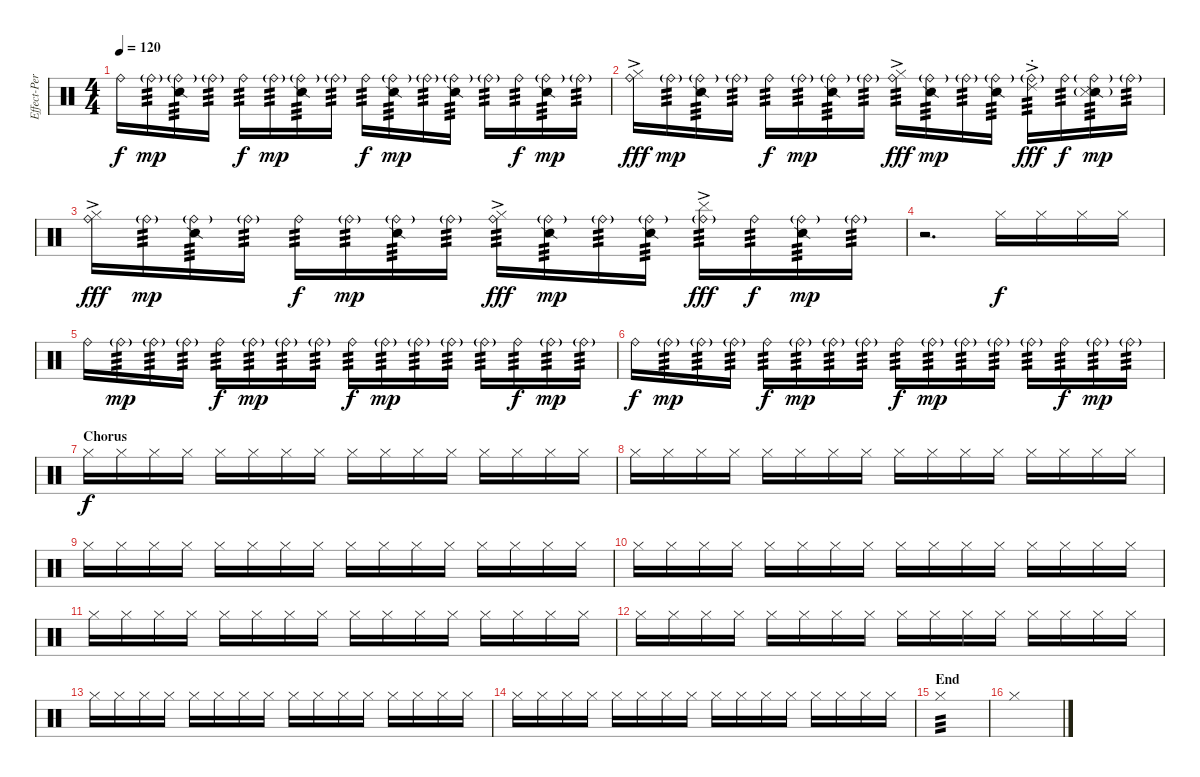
\track ("Effect-Percs" "Effect-Per") {instrument percussion}
\staff {score}
\articulation defaults
\ts (4 4)
\tempo 120
\clef neutral
\ks c "Ride (bell)".16{dy f} "Ride (bell)"{g}.16{tp 3 dy mp}
("Ride (bell)"{g} "Snare (side stick) 2").16{tp 3} "Ride (bell)"{g}.16{tp 3} "Ride (bell)".16{tp 3 dy f} "Ride (bell)"{g}.16{tp 3 dy mp} ("Ride (bell)"{g} "Snare (side stick) 2").16{tp 3} "Ride (bell)"{g}.16{tp 3} "Ride (bell)".16{tp 3 dy f} ("Ride (bell)"{g} "Snare (side stick) 2").16{tp 3 dy mp} "Ride (bell)"{g}.16{tp 3} ("Ride (bell)"{g} "Snare (side stick) 2").16{tp 3} "Ride (bell)"{g}.16{tp 3} "Ride (bell)".16{tp 3 dy f} ("Ride (bell)"{g} "Snare (side stick) 2").16{tp 3 dy mp} "Ride (bell)"{g}.16{tp 3} |
("Ride (bell)" "Hi-Hat (closed)"{ac}).16{dy fff} "Ride (bell)"{g}.16{tp 3 dy mp} ("Ride (bell)"{g} "Snare (side stick) 2").16{tp 3} "Ride (bell)"{g}.16{tp 3} "Ride (bell)".16{tp 3 dy f} "Ride (bell)"{g}.16{tp 3 dy mp} ("Ride (bell)"{g} "Snare (side stick) 2").16{tp 3} "Ride (bell)"{g}.16{tp 3} ("Ride (bell)" "Hi-Hat (closed)"{ac}).16{tp 3 dy fff} ("Ride (bell)"{g} "Snare (side stick) 2").16{tp 3 dy mp} "Ride (bell)"{g}.16{tp 3} ("Ride (bell)"{g} "Snare (side stick) 2").16{tp 3} ("Ride (bell)"{g} "Ride (choke) 2"{ac}).16{tp 3 dy fff} "Ride (bell)".16{tp 3 dy f} ("Ride (bell)"{g} "Snare (side stick) 2" "Metronome (hit)"{g}).16{tp 3 dy mp} "Ride (bell)"{g}.16{tp 3} |
("Ride (bell)" "Hi-Hat (closed)"{ac}).16{dy fff} "Ride (bell)"{g}.16{tp 3 dy mp} ("Ride (bell)"{g} "Snare (side stick) 2").16{tp 3} "Ride (bell)"{g}.16{tp 3} "Ride (bell)".16{tp 3 dy f} "Ride (bell)"{g}.16{tp 3 dy mp} ("Ride (bell)"{g} "Snare (side stick) 2").16{tp 3} "Ride (bell)"{g}.16{tp 3} ("Ride (bell)" "Hi-Hat (closed)"{ac}).16{tp 3 dy fff} ("Ride (bell)"{g} "Snare (side stick) 2").16{tp 3 dy mp} "Ride (bell)"{g}.16{tp 3} ("Ride (bell)"{g} "Snare (side stick) 2").16{tp 3} ("Ride (bell)"{g} "Cymbal (hit)"{ac}).16{tp 3 dy fff} "Ride (bell)".16{tp 3 dy f} ("Ride (bell)"{g} "Snare (side stick) 2").16{tp 3 dy mp} "Ride (bell)"{g}.16{tp 3} |
r.2{d} "Hi-Hat (closed)".16{dy f} "Hi-Hat (closed)".16 "Hi-Hat (closed)".16 "Hi-Hat (closed)".16 |
"Ride (bell)".16 "Ride (bell)"{g}.16{tp 3 dy mp} "Ride (bell)"{g}.16{tp 3} "Ride (bell)"{g}.16{tp 3} "Ride (bell)".16{tp 3 dy f} "Ride (bell)"{g}.16{tp 3 dy mp} "Ride (bell)"{g}.16{tp 3} "Ride (bell)"{g}.16{tp 3} "Ride (bell)".16{tp 3 dy f} "Ride (bell)"{g}.16{tp 3 dy mp} "Ride (bell)"{g}.16{tp 3} "Ride (bell)"{g}.16{tp 3} "Ride (bell)"{g}.16{tp 3} "Ride (bell)".16{tp 3 dy f} "Ride (bell)"{g}.16{tp 3 dy mp} "Ride (bell)"{g}.16{tp 3} |
"Ride (bell)".16{dy f} "Ride (bell)"{g}.16{tp 3 dy mp} "Ride (bell)"{g}.16{tp 3} "Ride (bell)"{g}.16{tp 3} "Ride (bell)".16{tp 3 dy f} "Ride (bell)"{g}.16{tp 3 dy mp} "Ride (bell)"{g}.16{tp 3} "Ride (bell)"{g}.16{tp 3} "Ride (bell)".16{tp 3 dy f} "Ride (bell)"{g}.16{tp 3 dy mp} "Ride (bell)"{g}.16{tp 3} "Ride (bell)"{g}.16{tp 3} "Ride (bell)"{g}.16{tp 3} "Ride (bell)".16{tp 3 dy f} "Ride (bell)"{g}.16{tp 3 dy mp} "Ride (bell)"{g}.16{tp 3} |
\section ("" "Chorus")
"Hi-Hat (closed)".16{dy f} "Hi-Hat (closed)".16 "Hi-Hat (closed)".16 "Hi-Hat (closed)".16 "Hi-Hat (closed)".16 "Hi-Hat (closed)".16 "Hi-Hat (closed)".16 "Hi-Hat (closed)".16 "Hi-Hat (closed)".16 "Hi-Hat (closed)".16 "Hi-Hat (closed)".16 "Hi-Hat (closed)".16 "Hi-Hat (closed)".16 "Hi-Hat (closed)".16 "Hi-Hat (closed)".16 "Hi-Hat (closed)".16 |
"Hi-Hat (closed)".16 "Hi-Hat (closed)".16 "Hi-Hat (closed)".16 "Hi-Hat (closed)".16 "Hi-Hat (closed)".16 "Hi-Hat (closed)".16 "Hi-Hat (closed)".16 "Hi-Hat (closed)".16 "Hi-Hat (closed)".16 "Hi-Hat (closed)".16 "Hi-Hat (closed)".16 "Hi-Hat (closed)".16 "Hi-Hat (closed)".16 "Hi-Hat (closed)".16 "Hi-Hat (closed)".16 "Hi-Hat (closed)".16 |
"Hi-Hat (closed)".16 "Hi-Hat (closed)".16 "Hi-Hat (closed)".16 "Hi-Hat (closed)".16 "Hi-Hat (closed)".16 "Hi-Hat (closed)".16 "Hi-Hat (closed)".16 "Hi-Hat (closed)".16 "Hi-Hat (closed)".16 "Hi-Hat (closed)".16 "Hi-Hat (closed)".16 "Hi-Hat (closed)".16 "Hi-Hat (closed)".16 "Hi-Hat (closed)".16 "Hi-Hat (closed)".16 "Hi-Hat (closed)".16 |
"Hi-Hat (closed)".16 "Hi-Hat (closed)".16 "Hi-Hat (closed)".16 "Hi-Hat (closed)".16 "Hi-Hat (closed)".16 "Hi-Hat (closed)".16 "Hi-Hat (closed)".16 "Hi-Hat (closed)".16 "Hi-Hat (closed)".16 "Hi-Hat (closed)".16 "Hi-Hat (closed)".16 "Hi-Hat (closed)".16 "Hi-Hat (closed)".16 "Hi-Hat (closed)".16 "Hi-Hat (closed)".16 "Hi-Hat (closed)".16 |
"Hi-Hat (closed)".16 "Hi-Hat (closed)".16 "Hi-Hat (closed)".16 "Hi-Hat (closed)".16 "Hi-Hat (closed)".16 "Hi-Hat (closed)".16 "Hi-Hat (closed)".16 "Hi-Hat (closed)".16 "Hi-Hat (closed)".16 "Hi-Hat (closed)".16 "Hi-Hat (closed)".16 "Hi-Hat (closed)".16 "Hi-Hat (closed)".16 "Hi-Hat (closed)".16 "Hi-Hat (closed)".16 "Hi-Hat (closed)".16 |
"Hi-Hat (closed)".16 "Hi-Hat (closed)".16 "Hi-Hat (closed)".16 "Hi-Hat (closed)".16 "Hi-Hat (closed)".16 "Hi-Hat (closed)".16 "Hi-Hat (closed)".16 "Hi-Hat (closed)".16 "Hi-Hat (closed)".16 "Hi-Hat (closed)".16 "Hi-Hat (closed)".16 "Hi-Hat (closed)".16 "Hi-Hat (closed)".16 "Hi-Hat (closed)".16 "Hi-Hat (closed)".16 "Hi-Hat (closed)".16 |
"Hi-Hat (closed)".16 "Hi-Hat (closed)".16 "Hi-Hat (closed)".16 "Hi-Hat (closed)".16 "Hi-Hat (closed)".16 "Hi-Hat (closed)".16 "Hi-Hat (closed)".16 "Hi-Hat (closed)".16 "Hi-Hat (closed)".16 "Hi-Hat (closed)".16 "Hi-Hat (closed)".16 "Hi-Hat (closed)".16 "Hi-Hat (closed)".16 "Hi-Hat (closed)".16 "Hi-Hat (closed)".16 "Hi-Hat (closed)".16 |
"Hi-Hat (closed)".16 "Hi-Hat (closed)".16 "Hi-Hat (closed)".16 "Hi-Hat (closed)".16 "Hi-Hat (closed)".16 "Hi-Hat (closed)".16 "Hi-Hat (closed)".16 "Hi-Hat (closed)".16 "Hi-Hat (closed)".16 "Hi-Hat (closed)".16 "Hi-Hat (closed)".16 "Hi-Hat (closed)".16 "Hi-Hat (closed)".16 "Hi-Hat (closed)".16 "Hi-Hat (closed)".16 "Hi-Hat (closed)".16 |
\section ("" "End")
"Hi-Hat (closed)".1{tp 3} |
"Hi-Hat (closed)".1
